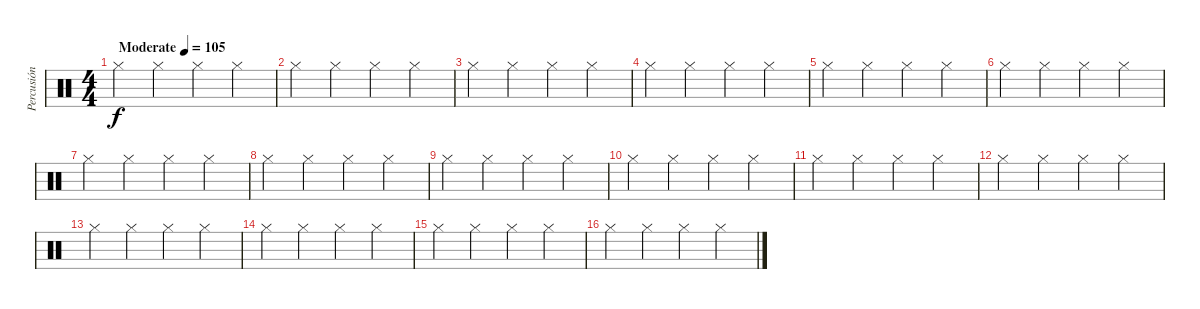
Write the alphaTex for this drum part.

\track ("Percusión" "Percusión") {instrument percussion}
\staff {score}
\articulation defaults
\ts (4 4)
\tempo (105 "Moderate")
\clef neutral
\ks c "Hi-Hat (closed)".4{dy f} "Hi-Hat (closed)".4 "Hi-Hat (closed)".4 "Hi-Hat (closed)".4
|
"Hi-Hat (closed)".4 "Hi-Hat (closed)".4 "Hi-Hat (closed)".4 "Hi-Hat (closed)".4 |
"Hi-Hat (closed)".4 "Hi-Hat (closed)".4 "Hi-Hat (closed)".4 "Hi-Hat (closed)".4 |
"Hi-Hat (closed)".4 "Hi-Hat (closed)".4 "Hi-Hat (closed)".4 "Hi-Hat (closed)".4 |
"Hi-Hat (closed)".4 "Hi-Hat (closed)".4 "Hi-Hat (closed)".4 "Hi-Hat (closed)".4 |
"Hi-Hat (closed)".4 "Hi-Hat (closed)".4 "Hi-Hat (closed)".4 "Hi-Hat (closed)".4 |
"Hi-Hat (closed)".4 "Hi-Hat (closed)".4 "Hi-Hat (closed)".4 "Hi-Hat (closed)".4 |
"Hi-Hat (closed)".4 "Hi-Hat (closed)".4 "Hi-Hat (closed)".4 "Hi-Hat (closed)".4 |
"Hi-Hat (closed)".4 "Hi-Hat (closed)".4 "Hi-Hat (closed)".4 "Hi-Hat (closed)".4 |
"Hi-Hat (closed)".4 "Hi-Hat (closed)".4 "Hi-Hat (closed)".4 "Hi-Hat (closed)".4 |
"Hi-Hat (closed)".4 "Hi-Hat (closed)".4 "Hi-Hat (closed)".4 "Hi-Hat (closed)".4 |
"Hi-Hat (closed)".4 "Hi-Hat (closed)".4 "Hi-Hat (closed)".4 "Hi-Hat (closed)".4 |
"Hi-Hat (closed)".4 "Hi-Hat (closed)".4 "Hi-Hat (closed)".4 "Hi-Hat (closed)".4 |
"Hi-Hat (closed)".4 "Hi-Hat (closed)".4 "Hi-Hat (closed)".4 "Hi-Hat (closed)".4 |
"Hi-Hat (closed)".4 "Hi-Hat (closed)".4 "Hi-Hat (closed)".4 "Hi-Hat (closed)".4 |
"Hi-Hat (closed)".4 "Hi-Hat (closed)".4 "Hi-Hat (closed)".4 "Hi-Hat (closed)".4
